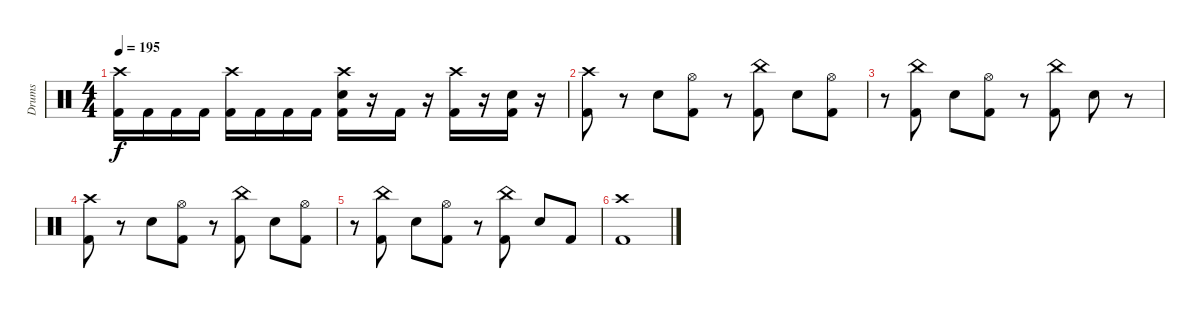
\track ("Drums" "Drums") {instrument percussion}
\staff {score}
\articulation defaults
\ts (4 4)
\tempo 195
\clef neutral
\ks c
("Crash high (hit)" "Kick (hit) 2").16{dy f} "Kick (hit) 2".16 "Kick (hit) 2".16 "Kick (hit) 2".16 ("Crash high (hit)" "Kick (hit) 2").16 "Kick (hit) 2".16 "Kick (hit) 2".16 "Kick (hit) 2".16 ("Crash high (hit)" "Snare (hit) 2" "Kick (hit) 2").16 r.16 "Kick (hit) 2".16 r.16 ("Crash high (hit)" "Kick (hit) 2").16 r.16 ("Snare (hit) 2" "Kick (hit) 2").16 r.16 |
("Crash high (hit)" "Kick (hit) 2").8 r.8 "Snare (hit) 2".8 ("Hi-Hat (open)" "Kick (hit) 2").8 r.8 ("China (hit)" "Kick (hit) 2").8 "Snare (hit) 2".8 ("Hi-Hat (open)" "Kick (hit) 2").8 |
r.8 ("China (hit)" "Kick (hit) 2").8 "Snare (hit) 2".8 ("Hi-Hat (open)" "Kick (hit) 2").8 r.8 ("China (hit)" "Kick (hit) 2").8 "Snare (hit) 2".8 r.8 |
("Crash high (hit)" "Kick (hit) 2").8 r.8 "Snare (hit) 2".8 ("Hi-Hat (open)" "Kick (hit) 2").8 r.8 ("China (hit)" "Kick (hit) 2").8 "Snare (hit) 2".8 ("Hi-Hat (open)" "Kick (hit) 2").8 |
r.8 ("China (hit)" "Kick (hit) 2").8 "Snare (hit) 2".8 ("Hi-Hat (open)" "Kick (hit) 2").8 r.8 ("China (hit)" "Kick (hit) 2").8 "Snare (hit) 2".8 "Kick (hit) 2".8 |
("Crash high (hit)" "Kick (hit) 2").1
